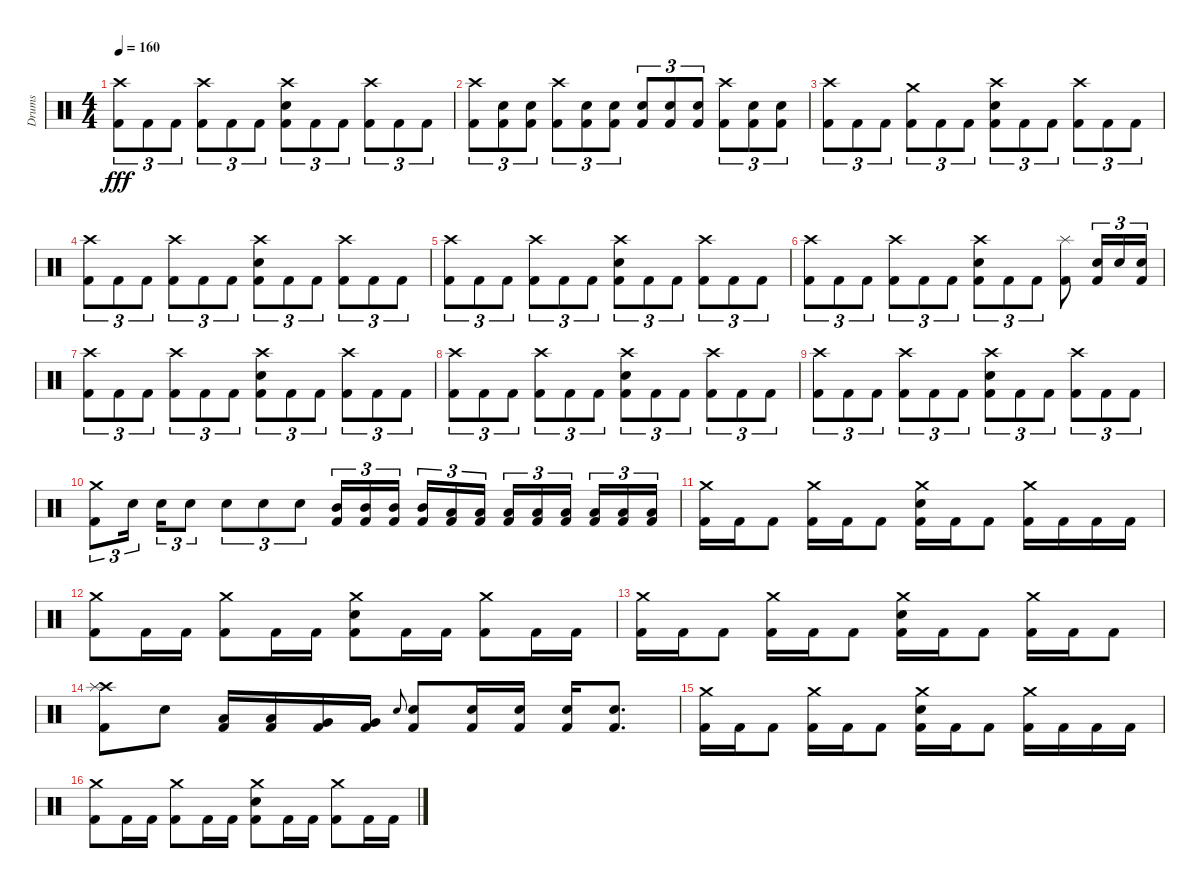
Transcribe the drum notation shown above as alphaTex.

\track ("Drums" "Drums") {instrument percussion}
\staff {score}
\articulation defaults
\ts (4 4)
\tempo 160
\clef neutral
\ks c
("Crash high (hit)" "Kick (hit) 2").8{tu (3 2) dy fff} "Kick (hit) 2".8{tu (3 2)} "Kick (hit) 2".8{tu (3 2)} ("Crash high (hit)" "Kick (hit) 2").8{tu (3 2)} "Kick (hit) 2".8{tu (3 2)} "Kick (hit) 2".8{tu (3 2)} ("Crash high (hit)" "Snare (hit) 2" "Kick (hit) 2").8{tu (3 2)} "Kick (hit) 2".8{tu (3 2)} "Kick (hit) 2".8{tu (3 2)} ("Crash high (hit)" "Kick (hit) 2").8{tu (3 2)} "Kick (hit) 2".8{tu (3 2)} "Kick (hit) 2".8{tu (3 2)} |
("Crash high (hit)" "Kick (hit) 2").8{tu (3 2)} ("Snare (hit) 2" "Kick (hit) 2").8{tu (3 2)} ("Snare (hit) 2" "Kick (hit) 2").8{tu (3 2)} ("Crash high (hit)" "Kick (hit) 2").8{tu (3 2)} ("Snare (hit) 2" "Kick (hit) 2").8{tu (3 2)} ("Snare (hit) 2" "Kick (hit) 2").8{tu (3 2)} ("Snare (hit) 2" "Kick (hit) 2").8{tu (3 2)} ("Snare (hit) 2" "Kick (hit) 2").8{tu (3 2)} ("Snare (hit) 2" "Kick (hit) 2").8{tu (3 2)} ("Crash high (hit)" "Kick (hit) 2").8{tu (3 2)} ("Snare (hit) 2" "Kick (hit) 2").8{tu (3 2)} ("Snare (hit) 2" "Kick (hit) 2").8{tu (3 2)} |
("Crash high (hit)" "Kick (hit) 2").8{tu (3 2)} "Kick (hit) 2".8{tu (3 2)} "Kick (hit) 2".8{tu (3 2)} ("Crash medium (hit)" "Kick (hit) 2").8{tu (3 2)} "Kick (hit) 2".8{tu (3 2)} "Kick (hit) 2".8{tu (3 2)} ("Crash high (hit)" "Snare (hit) 2" "Kick (hit) 2").8{tu (3 2)} "Kick (hit) 2".8{tu (3 2)} "Kick (hit) 2".8{tu (3 2)} ("Crash high (hit)" "Kick (hit) 2").8{tu (3 2)} "Kick (hit) 2".8{tu (3 2)} "Kick (hit) 2".8{tu (3 2)} |
("Crash high (hit)" "Kick (hit) 2").8{tu (3 2)} "Kick (hit) 2".8{tu (3 2)} "Kick (hit) 2".8{tu (3 2)} ("Crash high (hit)" "Kick (hit) 2").8{tu (3 2)} "Kick (hit) 2".8{tu (3 2)} "Kick (hit) 2".8{tu (3 2)} ("Crash high (hit)" "Snare (hit) 2" "Kick (hit) 2").8{tu (3 2)} "Kick (hit) 2".8{tu (3 2)} "Kick (hit) 2".8{tu (3 2)} ("Crash high (hit)" "Kick (hit) 2").8{tu (3 2)} "Kick (hit) 2".8{tu (3 2)} "Kick (hit) 2".8{tu (3 2)} |
("Crash high (hit)" "Kick (hit) 2").8{tu (3 2)} "Kick (hit) 2".8{tu (3 2)} "Kick (hit) 2".8{tu (3 2)} ("Crash high (hit)" "Kick (hit) 2").8{tu (3 2)} "Kick (hit) 2".8{tu (3 2)} "Kick (hit) 2".8{tu (3 2)} ("Crash high (hit)" "Snare (hit) 2" "Kick (hit) 2").8{tu (3 2)} "Kick (hit) 2".8{tu (3 2)} "Kick (hit) 2".8{tu (3 2)} ("Crash high (hit)" "Kick (hit) 2").8{tu (3 2)} "Kick (hit) 2".8{tu (3 2)} "Kick (hit) 2".8{tu (3 2)} |
("Crash high (hit)" "Kick (hit) 2").8{tu (3 2)} "Kick (hit) 2".8{tu (3 2)} "Kick (hit) 2".8{tu (3 2)} ("Crash high (hit)" "Kick (hit) 2").8{tu (3 2)} "Kick (hit) 2".8{tu (3 2)} "Kick (hit) 2".8{tu (3 2)} ("Crash high (hit)" "Snare (hit) 2" "Kick (hit) 2").8{tu (3 2)} "Kick (hit) 2".8{tu (3 2)} "Kick (hit) 2".8{tu (3 2)} ("Splash (hit)" "Kick (hit) 2").8 ("Snare (hit) 2" "Kick (hit) 2").16{tu (3 2)} "Snare (hit) 2".16{tu (3 2)} ("Snare (hit) 2" "Kick (hit) 2").16{tu (3 2)} |
("Crash high (hit)" "Kick (hit) 2").8{tu (3 2)} "Kick (hit) 2".8{tu (3 2)} "Kick (hit) 2".8{tu (3 2)} ("Crash high (hit)" "Kick (hit) 2").8{tu (3 2)} "Kick (hit) 2".8{tu (3 2)} "Kick (hit) 2".8{tu (3 2)} ("Crash high (hit)" "Snare (hit) 2" "Kick (hit) 2").8{tu (3 2)} "Kick (hit) 2".8{tu (3 2)} "Kick (hit) 2".8{tu (3 2)} ("Crash high (hit)" "Kick (hit) 2").8{tu (3 2)} "Kick (hit) 2".8{tu (3 2)} "Kick (hit) 2".8{tu (3 2)} |
("Crash high (hit)" "Kick (hit) 2").8{tu (3 2)} "Kick (hit) 2".8{tu (3 2)} "Kick (hit) 2".8{tu (3 2)} ("Crash high (hit)" "Kick (hit) 2").8{tu (3 2)} "Kick (hit) 2".8{tu (3 2)} "Kick (hit) 2".8{tu (3 2)} ("Crash high (hit)" "Snare (hit) 2" "Kick (hit) 2").8{tu (3 2)} "Kick (hit) 2".8{tu (3 2)} "Kick (hit) 2".8{tu (3 2)} ("Crash high (hit)" "Kick (hit) 2").8{tu (3 2)} "Kick (hit) 2".8{tu (3 2)} "Kick (hit) 2".8{tu (3 2)} |
("Crash high (hit)" "Kick (hit) 2").8{tu (3 2)} "Kick (hit) 2".8{tu (3 2)} "Kick (hit) 2".8{tu (3 2)} ("Crash high (hit)" "Kick (hit) 2").8{tu (3 2)} "Kick (hit) 2".8{tu (3 2)} "Kick (hit) 2".8{tu (3 2)} ("Crash high (hit)" "Snare (hit) 2" "Kick (hit) 2").8{tu (3 2)} "Kick (hit) 2".8{tu (3 2)} "Kick (hit) 2".8{tu (3 2)} ("Crash high (hit)" "Kick (hit) 2").8{tu (3 2)} "Kick (hit) 2".8{tu (3 2)} "Kick (hit) 2".8{tu (3 2)} |
("Crash medium (hit)" "Kick (hit) 2").8{tu (3 2)} "Snare (hit) 2".16{tu (3 2) beam splitsecondary} "Snare (hit) 2".16{tu (3 2)} "Snare (hit) 2".8{tu (3 2)} "Snare (hit) 2".8{tu (3 2)} "Snare (hit) 2".8{tu (3 2)} "Snare (hit) 2".8{tu (3 2)} ("Mid Tom (hit)" "Kick (hit) 2").16{tu (3 2)} ("Mid Tom (hit)" "Kick (hit) 2").16{tu (3 2)} ("Mid Tom (hit)" "Kick (hit) 2").16{tu (3 2) beam splitsecondary} ("Mid Tom (hit)" "Kick (hit) 2").16{tu (3 2)} ("Low Tom (hit)" "Kick (hit) 2").16{tu (3 2)} ("Low Tom (hit)" "Kick (hit) 2").16{tu (3 2)} ("Low Tom (hit)" "Kick (hit) 2").16{tu (3 2)} ("Low Tom (hit)" "Kick (hit) 2").16{tu (3 2)} ("Low Floor Tom (hit)" "Kick (hit) 2").16{tu (3 2) beam splitsecondary} ("Low Floor Tom (hit)" "Kick (hit) 2").16{tu (3 2)} ("Low Floor Tom (hit)" "Kick (hit) 2").16{tu (3 2)} ("Low Floor Tom (hit)" "Kick (hit) 2").16{tu (3 2)} |
("Crash medium (hit)" "Kick (hit) 2").16 "Kick (hit) 2".16 "Kick (hit) 2".8 ("Crash medium (hit)" "Kick (hit) 2").16 "Kick (hit) 2".16 "Kick (hit) 2".8 ("Crash medium (hit)" "Snare (hit) 2" "Kick (hit) 2").16 "Kick (hit) 2".16 "Kick (hit) 2".8 ("Crash medium (hit)" "Kick (hit) 2").16 "Kick (hit) 2".16 "Kick (hit) 2".16 "Kick (hit) 2".16 |
("Crash medium (hit)" "Kick (hit) 2").8 "Kick (hit) 2".16 "Kick (hit) 2".16 ("Crash medium (hit)" "Kick (hit) 2").8 "Kick (hit) 2".16 "Kick (hit) 2".16 ("Crash medium (hit)" "Snare (hit) 2" "Kick (hit) 2").8 "Kick (hit) 2".16 "Kick (hit) 2".16 ("Crash medium (hit)" "Kick (hit) 2").8 "Kick (hit) 2".16 "Kick (hit) 2".16 |
("Crash medium (hit)" "Kick (hit) 2").16 "Kick (hit) 2".16 "Kick (hit) 2".8 ("Crash medium (hit)" "Kick (hit) 2").16 "Kick (hit) 2".16 "Kick (hit) 2".8 ("Crash medium (hit)" "Snare (hit) 2" "Kick (hit) 2").16 "Kick (hit) 2".16 "Kick (hit) 2".8 ("Crash medium (hit)" "Kick (hit) 2").16 "Kick (hit) 2".16 "Kick (hit) 2".8 |
("Crash high (hit)" "Splash (hit)" "Kick (hit) 2").8 "Snare (hit) 2".8 ("Low Tom (hit)" "Kick (hit) 2").16 ("Low Tom (hit)" "Kick (hit) 2").16 ("Very Low Tom (hit)" "Kick (hit) 2").16 ("Very Low Tom (hit)" "Kick (hit) 2").16 "Snare (hit) 2".8{gr onbeat} ("Snare (hit) 2" "Kick (hit) 2").8 ("Snare (hit) 2" "Kick (hit) 2").16 ("Snare (hit) 2" "Kick (hit) 2").16 ("Snare (hit) 2" "Kick (hit) 2").16 ("Snare (hit) 2" "Kick (hit) 2").8{d} |
("Crash medium (hit)" "Kick (hit) 2").16 "Kick (hit) 2".16 "Kick (hit) 2".8 ("Crash medium (hit)" "Kick (hit) 2").16 "Kick (hit) 2".16 "Kick (hit) 2".8 ("Crash medium (hit)" "Snare (hit) 2" "Kick (hit) 2").16 "Kick (hit) 2".16 "Kick (hit) 2".8 ("Crash medium (hit)" "Kick (hit) 2").16 "Kick (hit) 2".16 "Kick (hit) 2".16 "Kick (hit) 2".16 |
("Crash medium (hit)" "Kick (hit) 2").8 "Kick (hit) 2".16 "Kick (hit) 2".16 ("Crash medium (hit)" "Kick (hit) 2").8 "Kick (hit) 2".16 "Kick (hit) 2".16 ("Crash medium (hit)" "Snare (hit) 2" "Kick (hit) 2").8 "Kick (hit) 2".16 "Kick (hit) 2".16 ("Crash medium (hit)" "Kick (hit) 2").8 "Kick (hit) 2".16 "Kick (hit) 2".16
